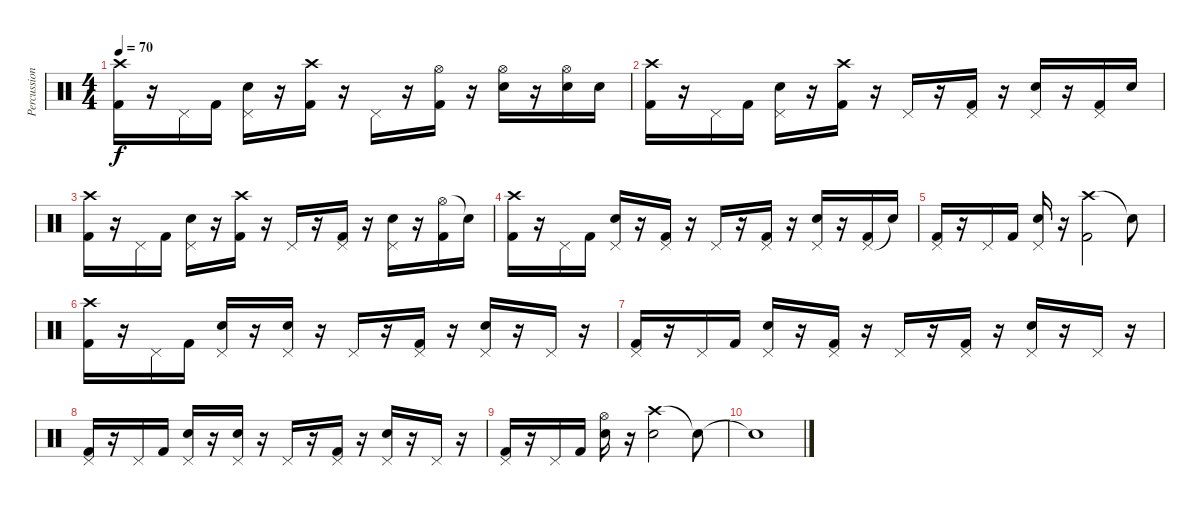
\track ("Percussion" "Percussion") {instrument percussion}
\staff {score}
\articulation defaults
\ts (4 4)
\tempo 70
\clef neutral
\ks c
("Crash high (hit)" "Kick (hit) 2").16{dy f} r.16 "Pedal Hi-Hat (hit)".16 "Kick (hit) 2".16 ("Pedal Hi-Hat (hit)" "Electric Snare (hit)").16 r.16 ("Crash high (hit)" "Kick (hit) 2").16 r.16 "Pedal Hi-Hat (hit)".16 r.16 ("Hi-Hat (open)" "Kick (hit) 2").16 r.16 ("Hi-Hat (open)" "Electric Snare (hit)").16 r.16 ("Hi-Hat (open)" "Electric Snare (hit)").16 "Electric Snare (hit)".16 |
("Crash high (hit)" "Kick (hit) 2").16 r.16 "Pedal Hi-Hat (hit)".16 "Kick (hit) 2".16 ("Pedal Hi-Hat (hit)" "Electric Snare (hit)").16 r.16 ("Crash high (hit)" "Kick (hit) 2").16 r.16 "Pedal Hi-Hat (hit)".16 r.16 ("Pedal Hi-Hat (hit)" "Kick (hit) 2").16 r.16 ("Pedal Hi-Hat (hit)" "Electric Snare (hit)").16 r.16 ("Pedal Hi-Hat (hit)" "Kick (hit) 2").16 "Electric Snare (hit)".16 |
("Crash high (hit)" "Kick (hit) 2").16 r.16 "Pedal Hi-Hat (hit)".16 "Kick (hit) 2".16 ("Pedal Hi-Hat (hit)" "Electric Snare (hit)").16 r.16 ("Crash high (hit)" "Kick (hit) 2").16 r.16 "Pedal Hi-Hat (hit)".16 r.16 ("Pedal Hi-Hat (hit)" "Kick (hit) 2").16 r.16 ("Pedal Hi-Hat (hit)" "Electric Snare (hit)").16 r.16 ("Hi-Hat (open)" "Kick (hit) 2").16 "Snare (hit)"{t}.16 |
("Crash high (hit)" "Kick (hit) 2").16 r.16 "Pedal Hi-Hat (hit)".16 "Kick (hit) 2".16 ("Pedal Hi-Hat (hit)" "Electric Snare (hit)").16 r.16 ("Pedal Hi-Hat (hit)" "Kick (hit) 2").16 r.16 "Pedal Hi-Hat (hit)".16 r.16 ("Pedal Hi-Hat (hit)" "Kick (hit) 2").16 r.16 ("Pedal Hi-Hat (hit)" "Electric Snare (hit)").16 r.16 ("Pedal Hi-Hat (hit)" "Kick (hit) 2").16 "Snare (hit)"{t}.16 |
("Pedal Hi-Hat (hit)" "Kick (hit) 2").16 r.16 "Pedal Hi-Hat (hit)".16 "Kick (hit) 2".16 ("Pedal Hi-Hat (hit)" "Electric Snare (hit)").16 r.16 ("Crash high (hit)" "Kick (hit) 2").2 "Snare (hit)"{t}.8 |
("Crash high (hit)" "Kick (hit) 2").16 r.16 "Pedal Hi-Hat (hit)".16 "Kick (hit) 2".16 ("Pedal Hi-Hat (hit)" "Electric Snare (hit)").16 r.16 ("Pedal Hi-Hat (hit)" "Electric Snare (hit)").16 r.16 "Pedal Hi-Hat (hit)".16 r.16 ("Pedal Hi-Hat (hit)" "Kick (hit) 2").16 r.16 ("Pedal Hi-Hat (hit)" "Electric Snare (hit)").16 r.16 "Pedal Hi-Hat (hit)".16 r.16 |
("Pedal Hi-Hat (hit)" "Kick (hit) 2").16 r.16 "Pedal Hi-Hat (hit)".16 "Kick (hit) 2".16 ("Pedal Hi-Hat (hit)" "Electric Snare (hit)").16 r.16 ("Pedal Hi-Hat (hit)" "Kick (hit) 2").16 r.16 "Pedal Hi-Hat (hit)".16 r.16 ("Pedal Hi-Hat (hit)" "Kick (hit) 2").16 r.16 ("Pedal Hi-Hat (hit)" "Electric Snare (hit)").16 r.16 "Pedal Hi-Hat (hit)".16 r.16 |
("Pedal Hi-Hat (hit)" "Kick (hit) 2").16 r.16 "Pedal Hi-Hat (hit)".16 "Kick (hit) 2".16 ("Pedal Hi-Hat (hit)" "Electric Snare (hit)").16 r.16 ("Pedal Hi-Hat (hit)" "Electric Snare (hit)").16 r.16 "Pedal Hi-Hat (hit)".16 r.16 ("Pedal Hi-Hat (hit)" "Kick (hit) 2").16 r.16 ("Pedal Hi-Hat (hit)" "Electric Snare (hit)").16 r.16 "Pedal Hi-Hat (hit)".16 r.16 |
("Pedal Hi-Hat (hit)" "Kick (hit) 2").16 r.16 "Pedal Hi-Hat (hit)".16 "Kick (hit) 2".16 ("Hi-Hat (open)" "Electric Snare (hit)").16 r.16 ("Crash high (hit)" "Electric Snare (hit)").2 "Snare (hit)"{t}.8 |
"Snare (hit)"{t}.1
